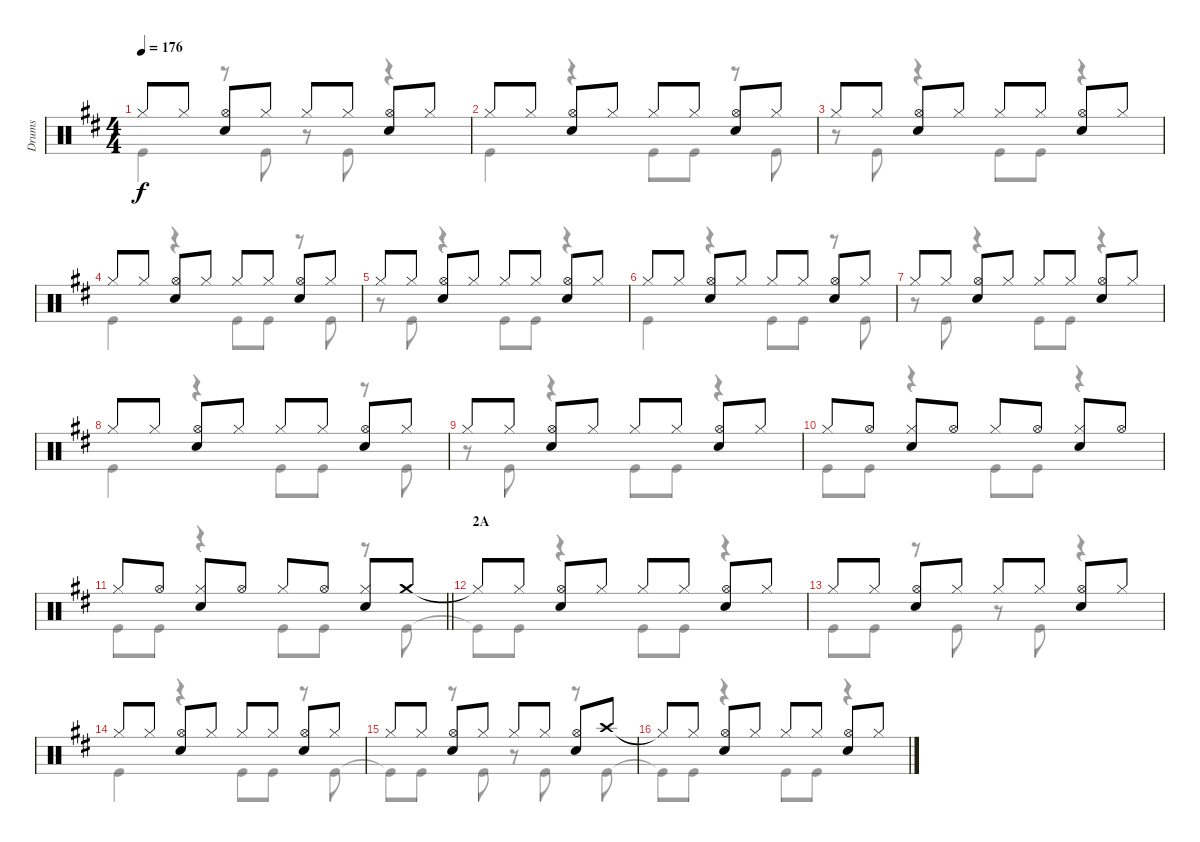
\track ("Drums" "Drums") {instrument percussion}
\staff {score}
\articulation defaults
\voice
\ts (4 4)
\tempo 176
\clef neutral
\ks d "Hi-Hat (closed)".8{dy f} "Hi-Hat (closed)".8
("Hi-Hat (open)" "Snare (hit) 2").8 "Hi-Hat (closed)".8 "Hi-Hat (closed)".8 "Hi-Hat (closed)".8 ("Hi-Hat (open)" "Snare (hit) 2").8 "Hi-Hat (closed)".8 |
"Hi-Hat (closed)".8 "Hi-Hat (closed)".8 ("Hi-Hat (open)" "Snare (hit) 2").8 "Hi-Hat (closed)".8 "Hi-Hat (closed)".8 "Hi-Hat (closed)".8 ("Hi-Hat (open)" "Snare (hit) 2").8 "Hi-Hat (closed)".8 |
"Hi-Hat (closed)".8 "Hi-Hat (closed)".8 ("Hi-Hat (open)" "Snare (hit) 2").8 "Hi-Hat (closed)".8 "Hi-Hat (closed)".8 "Hi-Hat (closed)".8 ("Hi-Hat (open)" "Snare (hit) 2").8 "Hi-Hat (closed)".8 |
"Hi-Hat (closed)".8 "Hi-Hat (closed)".8 ("Hi-Hat (open)" "Snare (hit) 2").8 "Hi-Hat (closed)".8 "Hi-Hat (closed)".8 "Hi-Hat (closed)".8 ("Hi-Hat (open)" "Snare (hit) 2").8 "Hi-Hat (closed)".8 |
"Hi-Hat (closed)".8 "Hi-Hat (closed)".8 ("Hi-Hat (open)" "Snare (hit) 2").8 "Hi-Hat (closed)".8 "Hi-Hat (closed)".8 "Hi-Hat (closed)".8 ("Hi-Hat (open)" "Snare (hit) 2").8 "Hi-Hat (closed)".8 |
"Hi-Hat (closed)".8 "Hi-Hat (closed)".8 ("Hi-Hat (open)" "Snare (hit) 2").8 "Hi-Hat (closed)".8 "Hi-Hat (closed)".8 "Hi-Hat (closed)".8 ("Hi-Hat (open)" "Snare (hit) 2").8 "Hi-Hat (closed)".8 |
"Hi-Hat (closed)".8 "Hi-Hat (closed)".8 ("Hi-Hat (open)" "Snare (hit) 2").8 "Hi-Hat (closed)".8 "Hi-Hat (closed)".8 "Hi-Hat (closed)".8 ("Hi-Hat (open)" "Snare (hit) 2").8 "Hi-Hat (closed)".8 |
"Hi-Hat (closed)".8 "Hi-Hat (closed)".8 ("Hi-Hat (open)" "Snare (hit) 2").8 "Hi-Hat (closed)".8 "Hi-Hat (closed)".8 "Hi-Hat (closed)".8 ("Hi-Hat (open)" "Snare (hit) 2").8 "Hi-Hat (closed)".8 |
"Hi-Hat (closed)".8 "Hi-Hat (closed)".8 ("Hi-Hat (open)" "Snare (hit) 2").8 "Hi-Hat (closed)".8 "Hi-Hat (closed)".8 "Hi-Hat (closed)".8 ("Hi-Hat (open)" "Snare (hit) 2").8 "Hi-Hat (closed)".8 |
"Hi-Hat (closed)".8 "Hi-Hat (open)".8 ("Hi-Hat (closed)" "Snare (hit) 2").8 "Hi-Hat (open)".8 "Hi-Hat (closed)".8 "Hi-Hat (open)".8 ("Hi-Hat (closed)" "Snare (hit) 2").8 "Hi-Hat (open)".8 |
\barLineRight lightlight "Hi-Hat (closed)".8 "Hi-Hat (open)".8
("Hi-Hat (closed)" "Snare (hit) 2").8 "Hi-Hat (open)".8 "Hi-Hat (closed)".8 "Hi-Hat (open)".8 ("Hi-Hat (closed)" "Snare (hit) 2").8 "Crash medium (hit)".8 |
\section ("" "2A")
"Hi-Hat (closed)"{t}.8 "Hi-Hat (closed)".8 ("Hi-Hat (open)" "Snare (hit) 2").8 "Hi-Hat (closed)".8 "Hi-Hat (closed)".8 "Hi-Hat (closed)".8 ("Hi-Hat (open)" "Snare (hit) 2").8 "Hi-Hat (closed)".8 |
"Hi-Hat (closed)".8 "Hi-Hat (closed)".8 ("Hi-Hat (open)" "Snare (hit) 2").8 "Hi-Hat (closed)".8 "Hi-Hat (closed)".8 "Hi-Hat (closed)".8 ("Hi-Hat (open)" "Snare (hit) 2").8 "Hi-Hat (closed)".8 |
"Hi-Hat (closed)".8 "Hi-Hat (closed)".8 ("Hi-Hat (open)" "Snare (hit) 2").8 "Hi-Hat (closed)".8 "Hi-Hat (closed)".8 "Hi-Hat (closed)".8 ("Hi-Hat (open)" "Snare (hit) 2").8 "Hi-Hat (closed)".8 |
"Hi-Hat (closed)".8 "Hi-Hat (closed)".8 ("Hi-Hat (open)" "Snare (hit) 2").8 "Hi-Hat (closed)".8 "Hi-Hat (closed)".8 "Hi-Hat (closed)".8 ("Hi-Hat (open)" "Snare (hit) 2").8 "Crash high (hit)".8 |
"Hi-Hat (closed)"{t}.8 "Hi-Hat (closed)".8 ("Hi-Hat (open)" "Snare (hit) 2").8 "Hi-Hat (closed)".8 "Hi-Hat (closed)".8 "Hi-Hat (closed)".8 ("Hi-Hat (open)" "Snare (hit) 2").8 "Hi-Hat (closed)".8
\voice
\clef neutral
\ottava regular
\simile none
\ks d "Kick (hit)".4{dy f}
r.8 "Kick (hit)".8 r.8 "Kick (hit)".8 r.4 |
"Kick (hit)".4 r.4 "Kick (hit)".8 "Kick (hit)".8 r.8 "Kick (hit)".8 |
r.8 "Kick (hit)".8 r.4 "Kick (hit)".8 "Kick (hit)".8 r.4 |
"Kick (hit)".4 r.4 "Kick (hit)".8 "Kick (hit)".8 r.8 "Kick (hit)".8 |
r.8 "Kick (hit)".8 r.4 "Kick (hit)".8 "Kick (hit)".8 r.4 |
"Kick (hit)".4 r.4 "Kick (hit)".8 "Kick (hit)".8 r.8 "Kick (hit)".8 |
r.8 "Kick (hit)".8 r.4 "Kick (hit)".8 "Kick (hit)".8 r.4 |
"Kick (hit)".4 r.4 "Kick (hit)".8 "Kick (hit)".8 r.8 "Kick (hit)".8 |
r.8 "Kick (hit)".8 r.4 "Kick (hit)".8 "Kick (hit)".8 r.4 |
"Kick (hit)".8 "Kick (hit)".8 r.4 "Kick (hit)".8 "Kick (hit)".8 r.4 |
\barLineRight lightlight "Kick (hit)".8 "Kick (hit)".8
r.4 "Kick (hit)".8 "Kick (hit)".8 r.8 "Kick (hit)".8 |
"Kick (hit)"{t}.8 "Kick (hit)".8 r.4 "Kick (hit)".8 "Kick (hit)".8 r.4 |
"Kick (hit)".8 "Kick (hit)".8 r.8 "Kick (hit)".8 r.8 "Kick (hit)".8 r.4 |
"Kick (hit)".4 r.4 "Kick (hit)".8 "Kick (hit)".8 r.8 "Kick (hit)".8 |
"Kick (hit)"{t}.8 "Kick (hit)".8 r.8 "Kick (hit)".8 r.8 "Kick (hit)".8 r.8 "Kick (hit)".8 |
"Kick (hit)"{t}.8 "Kick (hit)".8 r.4 "Kick (hit)".8 "Kick (hit)".8 r.4
